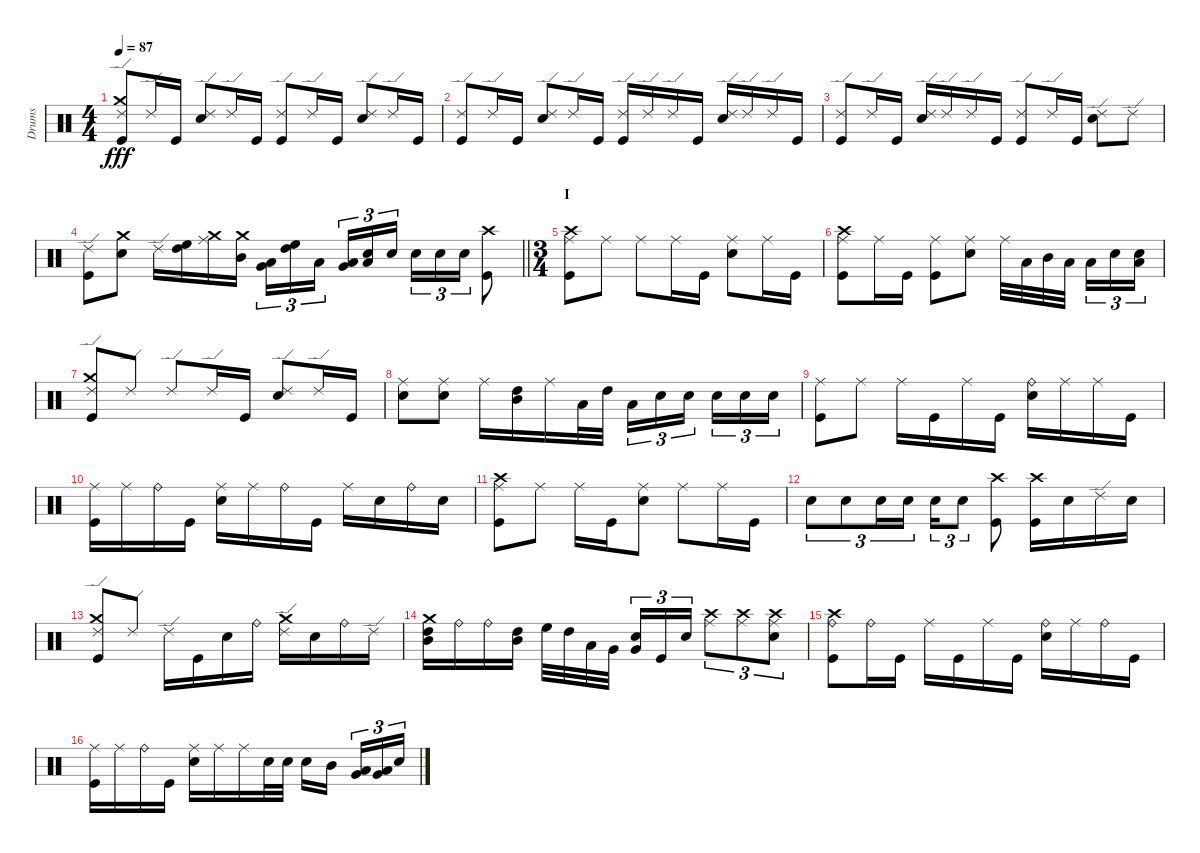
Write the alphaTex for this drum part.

\track ("Drums" "Drums") {instrument percussion}
\staff {score}
\articulation defaults
\ts (4 4)
\tempo 87
\clef neutral
\ks c
("Ride (edge) 2" "Crash medium (hit)" "Kick (hit)").8{dy fff} "Ride (edge) 2".16 "Kick (hit)".16 ("Ride (edge) 2" "Snare (hit) 2").8 "Ride (edge) 2".16 "Kick (hit)".16 ("Ride (edge) 2" "Kick (hit)").8 "Ride (edge) 2".16 "Kick (hit)".16 ("Ride (edge) 2" "Snare (hit) 2").8 "Ride (edge) 2".16 "Kick (hit)".16 |
("Ride (edge) 2" "Kick (hit)").8 "Ride (edge) 2".16 "Kick (hit)".16 ("Ride (edge) 2" "Snare (hit) 2").8 "Ride (edge) 2".16 "Kick (hit)".16 ("Ride (edge) 2" "Kick (hit)").16 "Ride (edge) 2".16 "Ride (edge) 2".16 "Kick (hit)".16 ("Ride (edge) 2" "Snare (hit) 2").16 "Ride (edge) 2".16 "Ride (edge) 2".16 "Kick (hit)".16 |
("Ride (edge) 2" "Kick (hit)").8 "Ride (edge) 2".16 "Kick (hit)".16 ("Ride (edge) 2" "Snare (hit) 2").16 "Ride (edge) 2".16 "Ride (edge) 2".16 "Kick (hit)".16 ("Ride (edge) 2" "Kick (hit)").8 "Ride (edge) 2".16 "Kick (hit)".16 ("Ride (edge) 2" "Snare (hit) 2").8 "Ride (edge) 2".8 |
\barLineRight lightlight
("Ride (edge) 2" "Kick (hit)").8 ("Crash medium (hit)" "Snare (hit) 2").8 "Ride (edge) 2".16 ("High Floor Tom (hit)" "High Tom (hit)").16 ("Ride (middle)" "Crash medium (hit)").16 ("Crash medium (hit)" "Mid Tom (hit)").16 ("Low Tom (hit)" "Very Low Tom (hit)").16{tu (3 2)} ("High Floor Tom (hit)" "High Tom (hit)").16{tu (3 2)} "Low Tom (hit)".16{tu (3 2)} ("Low Tom (hit)" "Very Low Tom (hit)").16{tu (3 2)} ("Low Floor Tom (hit)" "Snare (hit) 2").16{tu (3 2)} "Snare (hit) 2".16{tu (3 2)} "Snare (hit) 2".16{tu (3 2)} "Snare (hit) 2".16{tu (3 2)} "Snare (hit) 2".16{tu (3 2)} ("Crash high (hit)" "Kick (hit)").8 |
\ts (3 4)
\section ("" "I")
("Ride (middle)" "Crash high (hit)" "Kick (hit)").8 "Ride (middle)".8 "Ride (middle)".8 "Ride (middle)".16 "Kick (hit)".16 ("Ride (middle)" "Snare (hit) 2").8 "Ride (middle)".16 "Kick (hit)".16 |
("Ride (middle)" "Crash high (hit)" "Kick (hit)").8 "Ride (middle)".16 "Kick (hit)".16 ("Ride (middle)" "Kick (hit)").8 ("Ride (middle)" "Snare (hit) 2").8 "Ride (middle)".32 "Low Tom (hit)".32 "Mid Tom (hit)".32 "Low Tom (hit)".32 "Low Floor Tom (hit)".16{tu (3 2)} "Snare (hit) 2".16{tu (3 2)} ("Low Floor Tom (hit)" "Snare (hit) 2").16{tu (3 2)} |
("Ride (edge) 2" "Crash medium (hit)" "Kick (hit)").8 "Ride (edge) 2".8 "Ride (edge) 2".8 "Ride (edge) 2".16 "Kick (hit)".16 ("Ride (edge) 2" "Snare (hit) 2").8 "Ride (edge) 2".16 "Kick (hit)".16 |
("Ride (middle)" "Snare (hit) 2").8 ("Ride (middle)" "Snare (hit) 2").8 "Ride (middle)".16 ("High Tom (hit)" "Mid Tom (hit)").16 "Ride (middle)".16 "Low Tom (hit)".32 "High Tom (hit)".32 "Low Floor Tom (hit)".16{tu (3 2)} "Snare (hit) 2".16{tu (3 2)} "Snare (hit) 2".16{tu (3 2)} "Snare (hit) 2".16{tu (3 2)} "Snare (hit) 2".16{tu (3 2)} "Snare (hit) 2".16{tu (3 2)} |
("Ride (middle)" "Kick (hit)").8 "Ride (middle)".8 "Ride (middle)".16 "Kick (hit)".16 "Ride (middle)".16 "Kick (hit)".16 ("Ride (bell)" "Snare (hit) 2").16 "Ride (middle)".16 "Ride (middle)".16 "Kick (hit)".16 |
("Ride (middle)" "Kick (hit)").16 "Ride (middle)".16 "Ride (bell)".16 "Kick (hit)".16 ("Ride (middle)" "Snare (hit) 2").16 "Ride (middle)".16 "Ride (bell)".16 "Kick (hit)".16 "Ride (middle)".16 "Snare (hit) 2".16 "Ride (bell)".16 "Snare (hit) 2".16 |
("Ride (middle)" "Crash high (hit)" "Kick (hit)").8 "Ride (middle)".8 "Ride (middle)".16 "Kick (hit)".16 ("Ride (middle)" "Snare (hit) 2").8 "Ride (middle)".8 "Ride (middle)".16 "Kick (hit)".16 |
"Snare (hit) 2".8{tu (3 2)} "Snare (hit) 2".8{tu (3 2)} "Snare (hit) 2".16{tu (3 2)} "Snare (hit) 2".16{tu (3 2)} "Snare (hit) 2".16{tu (3 2)} "Snare (hit) 2".8{tu (3 2)} ("Crash high (hit)" "Kick (hit)").8 ("Crash high (hit)" "Kick (hit)").16 "Snare (hit) 2".16 "Ride (edge) 2".16 "Snare (hit) 2".16 |
("Ride (edge) 2" "Crash medium (hit)" "Kick (hit)").8 "Ride (edge) 2".8 "Ride (edge) 2".16 "Kick (hit)".16 "Snare (hit) 2".16 "Ride (bell)".16 ("Ride (edge) 2" "Crash medium (hit)").16 "Snare (hit) 2".16 "Ride (bell)".16 "Ride (edge) 2".16 |
("Crash medium (hit)" "High Tom (hit)" "Mid Tom (hit)").16 "Ride (bell)".16 "Ride (bell)".16 ("High Tom (hit)" "Mid Tom (hit)").16 "High Floor Tom (hit)".32 "High Tom (hit)".32 "Low Tom (hit)".32 "Very Low Tom (hit)".32 ("Very Low Tom (hit)" "Snare (hit) 2").16{tu (3 2)} "Kick (hit)".16{tu (3 2)} "Snare (hit) 2".16{tu (3 2)} ("Ride (middle)" "Crash high (hit)").8{tu (3 2)} ("Ride (middle)" "Crash high (hit)").8{tu (3 2)} ("Ride (middle)" "Crash high (hit)" "Snare (hit) 2").8{tu (3 2)} |
("Ride (bell)" "Crash high (hit)" "Kick (hit)").8 "Ride (bell)".16 "Kick (hit)".16 "Ride (middle)".16 "Kick (hit)".16 "Ride (middle)".16 "Kick (hit)".16 ("Ride (bell)" "Snare (hit) 2").16 "Ride (middle)".16 "Ride (bell)".16 "Kick (hit)".16 |
("Ride (middle)" "Kick (hit)").16 "Ride (middle)".16 "Ride (bell)".16 "Kick (hit)".16 ("Ride (middle)" "Snare (hit) 2").16 "Ride (middle)".16 "Ride (middle)".16 "Snare (hit) 2".32 "Snare (hit) 2".32 "Snare (hit) 2".16 "Mid Tom (hit)".16 ("Very Low Tom (hit)" "Low Floor Tom (hit)").16{tu (3 2)} ("Very Low Tom (hit)" "Low Floor Tom (hit)").16{tu (3 2)} "Snare (hit) 2".16{tu (3 2)}
